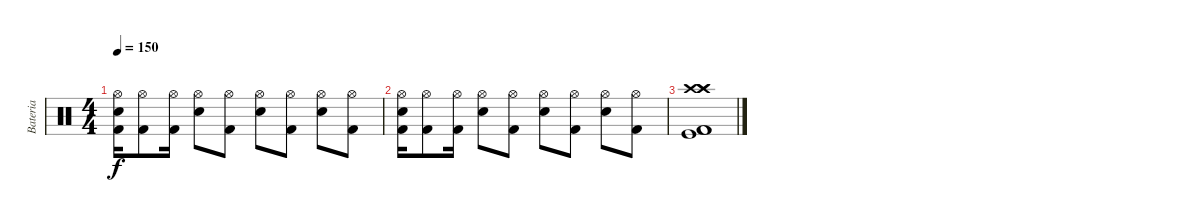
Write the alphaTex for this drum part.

\track ("Bateria" "Bateria") {instrument percussion}
\staff {score}
\articulation defaults
\ts (4 4)
\tempo 150
\clef neutral
\ks c
("Hi-Hat (open)" "Electric Snare (hit)" "Kick (hit) 2").16{dy f} ("Hi-Hat (open)" "Kick (hit) 2").8 ("Hi-Hat (open)" "Kick (hit) 2").16 ("Hi-Hat (open)" "Electric Snare (hit)").8 ("Hi-Hat (open)" "Kick (hit) 2").8 ("Hi-Hat (open)" "Electric Snare (hit)").8 ("Hi-Hat (open)" "Kick (hit) 2").8 ("Hi-Hat (open)" "Electric Snare (hit)").8 ("Hi-Hat (open)" "Kick (hit) 2").8 |
("Hi-Hat (open)" "Electric Snare (hit)" "Kick (hit) 2").16 ("Hi-Hat (open)" "Kick (hit) 2").8 ("Hi-Hat (open)" "Kick (hit) 2").16 ("Hi-Hat (open)" "Electric Snare (hit)").8 ("Hi-Hat (open)" "Kick (hit) 2").8 ("Hi-Hat (open)" "Electric Snare (hit)").8 ("Hi-Hat (open)" "Kick (hit) 2").8 ("Hi-Hat (open)" "Electric Snare (hit)").8 ("Hi-Hat (open)" "Kick (hit) 2").8 |
("Crash high (hit)" "Crash high (hit)" "Crash high (hit)" "Kick (hit)" "Kick (hit) 2" "Kick (hit) 2").1
